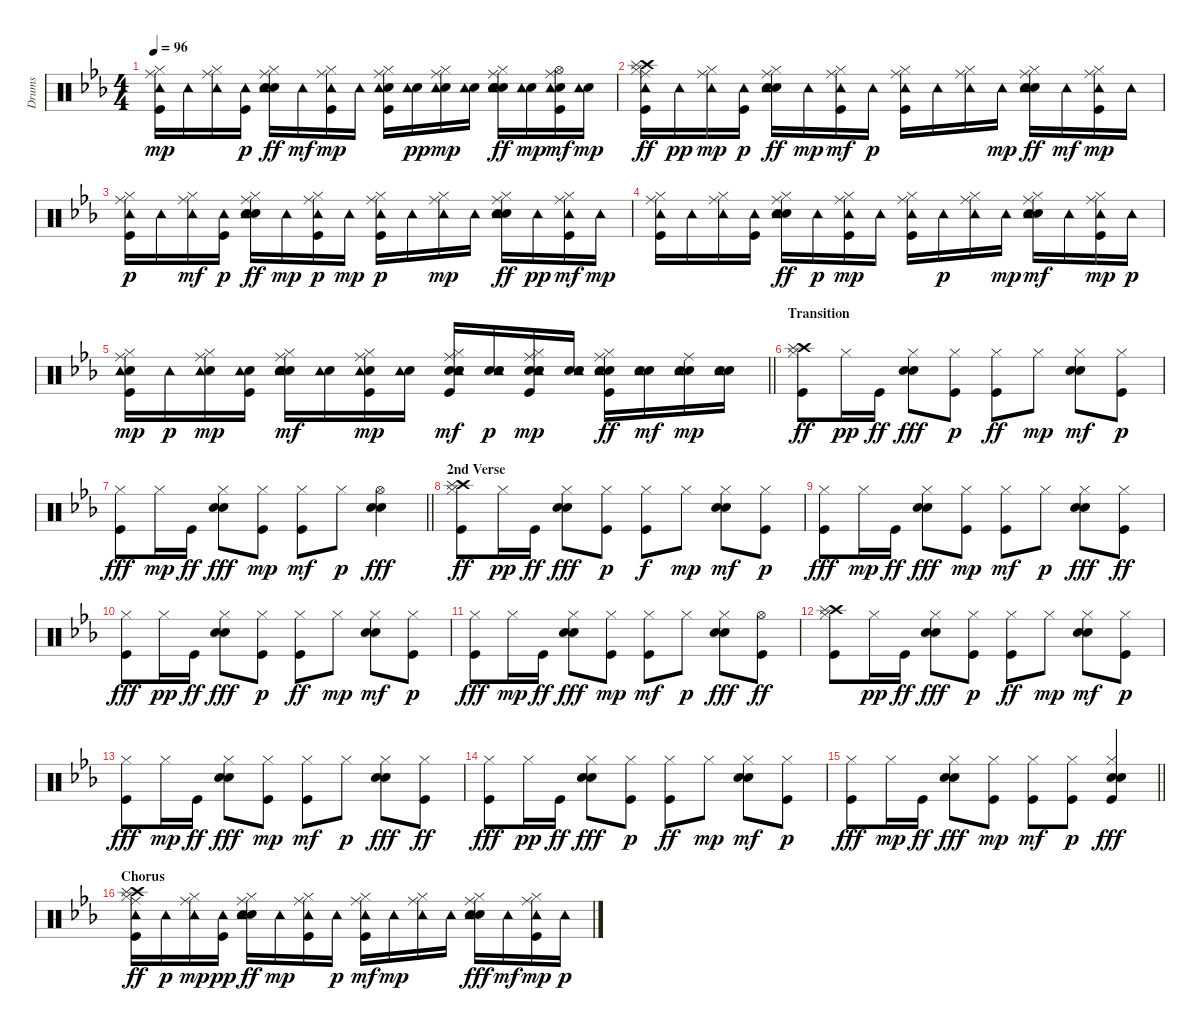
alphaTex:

\track ("Drums" "Drums") {instrument percussion}
\staff {score}
\articulation defaults
\ts (4 4)
\tempo 96
\clef neutral
\ks eb
("Kick (hit)" "Hi-Hat (closed)" "Ride (middle)" "Tambourine (hit)").16{dy mp} "Tambourine (hit)".16 ("Hi-Hat (closed)" "Ride (middle)" "Tambourine (hit)").16 ("Kick (hit)" "Tambourine (hit)").16{dy p} ("Snare (hit) 2" "Hand Clap (hit)" "Hi-Hat (closed)" "Ride (middle)" "Tambourine (hit)").16{dy ff} "Tambourine (hit)".16{dy mf} ("Kick (hit)" "Hi-Hat (closed)" "Ride (middle)" "Tambourine (hit)").16{dy mp} "Tambourine (hit)".16 ("Kick (hit)" "Electric Snare (hit)" "Hi-Hat (closed)" "Ride (middle)" "Tambourine (hit)").16 ("Electric Snare (hit)" "Tambourine (hit)").16{dy pp} ("Electric Snare (hit)" "Hi-Hat (closed)" "Ride (middle)" "Tambourine (hit)").16{dy mp} ("Electric Snare (hit)" "Tambourine (hit)").16 ("Snare (hit) 2" "Hand Clap (hit)" "Electric Snare (hit)" "Hi-Hat (closed)" "Ride (middle)" "Tambourine (hit)").16{dy ff} ("Electric Snare (hit)" "Tambourine (hit)").16{dy mp} ("Kick (hit)" "Electric Snare (hit)" "Hi-Hat (open)" "Ride (middle)" "Tambourine (hit)").16{dy mf} ("Electric Snare (hit)" "Tambourine (hit)").16{dy mp} |
("Kick (hit)" "Hi-Hat (closed)" "Crash high (hit)" "Ride (middle)" "Tambourine (hit)" "Splash (hit)").16{dy ff} "Tambourine (hit)".16{dy pp} ("Hi-Hat (closed)" "Ride (middle)" "Tambourine (hit)").16{dy mp} ("Kick (hit)" "Tambourine (hit)").16{dy p} ("Snare (hit) 2" "Hand Clap (hit)" "Hi-Hat (closed)" "Ride (middle)" "Tambourine (hit)").16{dy ff} "Tambourine (hit)".16{dy mp} ("Kick (hit)" "Hi-Hat (closed)" "Ride (middle)" "Tambourine (hit)").16{dy mf} "Tambourine (hit)".16{dy p} ("Kick (hit)" "Hi-Hat (closed)" "Ride (middle)" "Tambourine (hit)").16 "Tambourine (hit)".16 ("Hi-Hat (closed)" "Ride (middle)" "Tambourine (hit)").16 "Tambourine (hit)".16{dy mp} ("Snare (hit) 2" "Hand Clap (hit)" "Hi-Hat (closed)" "Ride (middle)" "Tambourine (hit)").16{dy ff} "Tambourine (hit)".16{dy mf} ("Kick (hit)" "Hi-Hat (closed)" "Ride (middle)" "Tambourine (hit)").16{dy mp} "Tambourine (hit)".16 |
("Kick (hit)" "Hi-Hat (closed)" "Ride (middle)" "Tambourine (hit)").16{dy p} "Tambourine (hit)".16 ("Hi-Hat (closed)" "Ride (middle)" "Tambourine (hit)").16{dy mf} ("Kick (hit)" "Tambourine (hit)").16{dy p} ("Snare (hit) 2" "Hand Clap (hit)" "Hi-Hat (closed)" "Ride (middle)" "Tambourine (hit)").16{dy ff} "Tambourine (hit)".16{dy mp} ("Kick (hit)" "Hi-Hat (closed)" "Ride (middle)" "Tambourine (hit)").16{dy p} "Tambourine (hit)".16{dy mp} ("Kick (hit)" "Hi-Hat (closed)" "Ride (middle)" "Tambourine (hit)").16{dy p} "Tambourine (hit)".16 ("Hi-Hat (closed)" "Ride (middle)" "Tambourine (hit)").16{dy mp} "Tambourine (hit)".16 ("Snare (hit) 2" "Hand Clap (hit)" "Hi-Hat (closed)" "Ride (middle)" "Tambourine (hit)").16{dy ff} "Tambourine (hit)".16{dy pp} ("Kick (hit)" "Hi-Hat (closed)" "Ride (middle)" "Tambourine (hit)").16{dy mf} "Tambourine (hit)".16{dy mp} |
("Kick (hit)" "Hi-Hat (closed)" "Ride (middle)" "Tambourine (hit)").16 "Tambourine (hit)".16 ("Hi-Hat (closed)" "Ride (middle)" "Tambourine (hit)").16 ("Kick (hit)" "Tambourine (hit)").16 ("Snare (hit) 2" "Hand Clap (hit)" "Hi-Hat (closed)" "Ride (middle)" "Tambourine (hit)").16{dy ff} "Tambourine (hit)".16{dy p} ("Kick (hit)" "Hi-Hat (closed)" "Ride (middle)" "Tambourine (hit)").16{dy mp} "Tambourine (hit)".16 ("Kick (hit)" "Hi-Hat (closed)" "Ride (middle)" "Tambourine (hit)").16 "Tambourine (hit)".16{dy p} ("Hi-Hat (closed)" "Ride (middle)" "Tambourine (hit)").16 "Tambourine (hit)".16{dy mp} ("Snare (hit) 2" "Hand Clap (hit)" "Hi-Hat (closed)" "Ride (middle)" "Tambourine (hit)").16{dy mf} "Tambourine (hit)".16 ("Kick (hit)" "Hi-Hat (closed)" "Ride (middle)" "Tambourine (hit)").16{dy mp} "Tambourine (hit)".16{dy p} |
\barLineRight lightlight
("Kick (hit)" "Electric Snare (hit)" "Hi-Hat (closed)" "Ride (middle)" "Tambourine (hit)").16{dy mp} "Tambourine (hit)".16{dy p} ("Electric Snare (hit)" "Hi-Hat (closed)" "Ride (middle)" "Tambourine (hit)").16{dy mp} ("Kick (hit)" "Electric Snare (hit)" "Tambourine (hit)").16 ("Snare (hit) 2" "Hand Clap (hit)" "Electric Snare (hit)" "Hi-Hat (closed)" "Ride (middle)" "Tambourine (hit)").16{dy mf} ("Electric Snare (hit)" "Tambourine (hit)").16 ("Kick (hit)" "Electric Snare (hit)" "Hi-Hat (closed)" "Ride (middle)" "Tambourine (hit)").16{dy mp} ("Electric Snare (hit)" "Tambourine (hit)").16 ("Kick (hit)" "Snare (hit) 2" "Electric Snare (hit)" "Hi-Hat (closed)" "Ride (middle)" "Tambourine (hit)").16{dy mf} ("Snare (hit) 2" "Electric Snare (hit)" "Tambourine (hit)").16{dy p} ("Kick (hit)" "Snare (hit) 2" "Electric Snare (hit)" "Hi-Hat (closed)" "Ride (middle)" "Tambourine (hit)").16{dy mp} ("Snare (hit) 2" "Electric Snare (hit)" "Tambourine (hit)").16 ("Kick (hit)" "Snare (hit) 2" "Electric Snare (hit)" "Hi-Hat (closed)" "Ride (middle)" "Tambourine (hit)").16{dy ff} ("Snare (hit) 2" "Electric Snare (hit)" "Tambourine (hit)").16{dy mf} ("Snare (hit) 2" "Electric Snare (hit)" "Ride (middle)" "Tambourine (hit)").16{dy mp} ("Snare (hit) 2" "Electric Snare (hit)" "Tambourine (hit)").16 |
\section ("" "Transition")
("Kick (hit)" "Hi-Hat (closed)" "Crash high (hit)" "Splash (hit)").8{dy ff} "Hi-Hat (closed)".16{dy pp} "Kick (hit)".16{dy ff} ("Snare (hit) 2" "Hand Clap (hit)" "Hi-Hat (closed)").8{dy fff} ("Kick (hit)" "Hi-Hat (closed)").8{dy p} ("Kick (hit)" "Hi-Hat (closed)").8{dy ff} "Hi-Hat (closed)".8{dy mp} ("Snare (hit) 2" "Hand Clap (hit)" "Hi-Hat (closed)").8{dy mf} ("Kick (hit)" "Hi-Hat (closed)").8{dy p} |
\barLineRight lightlight
("Kick (hit)" "Hi-Hat (closed)").8{dy fff} "Hi-Hat (closed)".16{dy mp} "Kick (hit)".16{dy ff} ("Snare (hit) 2" "Hand Clap (hit)" "Hi-Hat (closed)").8{dy fff} ("Kick (hit)" "Hi-Hat (closed)").8{dy mp} ("Kick (hit)" "Hi-Hat (closed)").8{dy mf} "Hi-Hat (closed)".8{dy p} ("Snare (hit) 2" "Hand Clap (hit)" "Hi-Hat (open)").4{dy fff} |
\section ("" "2nd Verse")
("Kick (hit)" "Hi-Hat (closed)" "Crash high (hit)" "Splash (hit)").8{dy ff} "Hi-Hat (closed)".16{dy pp} "Kick (hit)".16{dy ff} ("Snare (hit) 2" "Hand Clap (hit)" "Hi-Hat (closed)").8{dy fff} ("Kick (hit)" "Hi-Hat (closed)").8{dy p} ("Kick (hit)" "Hi-Hat (closed)").8{dy f} "Hi-Hat (closed)".8{dy mp} ("Snare (hit) 2" "Hand Clap (hit)" "Hi-Hat (closed)").8{dy mf} ("Kick (hit)" "Hi-Hat (closed)").8{dy p} |
("Kick (hit)" "Hi-Hat (closed)").8{dy fff} "Hi-Hat (closed)".16{dy mp} "Kick (hit)".16{dy ff} ("Snare (hit) 2" "Hand Clap (hit)" "Hi-Hat (closed)").8{dy fff} ("Kick (hit)" "Hi-Hat (closed)").8{dy mp} ("Kick (hit)" "Hi-Hat (closed)").8{dy mf} "Hi-Hat (closed)".8{dy p} ("Snare (hit) 2" "Hand Clap (hit)" "Hi-Hat (closed)").8{dy fff} ("Kick (hit)" "Hi-Hat (closed)").8{dy ff} |
("Kick (hit)" "Hi-Hat (closed)").8{dy fff} "Hi-Hat (closed)".16{dy pp} "Kick (hit)".16{dy ff} ("Snare (hit) 2" "Hand Clap (hit)" "Hi-Hat (closed)").8{dy fff} ("Kick (hit)" "Hi-Hat (closed)").8{dy p} ("Kick (hit)" "Hi-Hat (closed)").8{dy ff} "Hi-Hat (closed)".8{dy mp} ("Snare (hit) 2" "Hand Clap (hit)" "Hi-Hat (closed)").8{dy mf} ("Kick (hit)" "Hi-Hat (closed)").8{dy p} |
("Kick (hit)" "Hi-Hat (closed)").8{dy fff} "Hi-Hat (closed)".16{dy mp} "Kick (hit)".16{dy ff} ("Snare (hit) 2" "Hand Clap (hit)" "Hi-Hat (closed)").8{dy fff} ("Kick (hit)" "Hi-Hat (closed)").8{dy mp} ("Kick (hit)" "Hi-Hat (closed)").8{dy mf} "Hi-Hat (closed)".8{dy p} ("Snare (hit) 2" "Hand Clap (hit)" "Hi-Hat (closed)").8{dy fff} ("Kick (hit)" "Hi-Hat (open)").8{dy ff} |
("Kick (hit)" "Hi-Hat (closed)" "Crash high (hit)" "Splash (hit)").8 "Hi-Hat (closed)".16{dy pp} "Kick (hit)".16{dy ff} ("Snare (hit) 2" "Hand Clap (hit)" "Hi-Hat (closed)").8{dy fff} ("Kick (hit)" "Hi-Hat (closed)").8{dy p} ("Kick (hit)" "Hi-Hat (closed)").8{dy ff} "Hi-Hat (closed)".8{dy mp} ("Snare (hit) 2" "Hand Clap (hit)" "Hi-Hat (closed)").8{dy mf} ("Kick (hit)" "Hi-Hat (closed)").8{dy p} |
("Kick (hit)" "Hi-Hat (closed)").8{dy fff} "Hi-Hat (closed)".16{dy mp} "Kick (hit)".16{dy ff} ("Snare (hit) 2" "Hand Clap (hit)" "Hi-Hat (closed)").8{dy fff} ("Kick (hit)" "Hi-Hat (closed)").8{dy mp} ("Kick (hit)" "Hi-Hat (closed)").8{dy mf} "Hi-Hat (closed)".8{dy p} ("Snare (hit) 2" "Hand Clap (hit)" "Hi-Hat (closed)").8{dy fff} ("Kick (hit)" "Hi-Hat (closed)").8{dy ff} |
("Kick (hit)" "Hi-Hat (closed)").8{dy fff} "Hi-Hat (closed)".16{dy pp} "Kick (hit)".16{dy ff} ("Snare (hit) 2" "Hand Clap (hit)" "Hi-Hat (closed)").8{dy fff} ("Kick (hit)" "Hi-Hat (closed)").8{dy p} ("Kick (hit)" "Hi-Hat (closed)").8{dy ff} "Hi-Hat (closed)".8{dy mp} ("Snare (hit) 2" "Hand Clap (hit)" "Hi-Hat (closed)").8{dy mf} ("Kick (hit)" "Hi-Hat (closed)").8{dy p} |
\barLineRight lightlight
("Kick (hit)" "Hi-Hat (closed)").8{dy fff} "Hi-Hat (closed)".16{dy mp} "Kick (hit)".16{dy ff} ("Snare (hit) 2" "Hand Clap (hit)" "Hi-Hat (closed)").8{dy fff} ("Kick (hit)" "Hi-Hat (closed)").8{dy mp} ("Kick (hit)" "Hi-Hat (closed)").8{dy mf} ("Kick (hit)" "Hi-Hat (closed)").8{dy p} ("Kick (hit)" "Snare (hit) 2" "Hand Clap (hit)" "Hi-Hat (closed)").4{dy fff} |
\section ("" "Chorus")
("Kick (hit)" "Hi-Hat (closed)" "Crash high (hit)" "Ride (middle)" "Tambourine (hit)" "Splash (hit)").16{dy ff} "Tambourine (hit)".16{dy p} ("Hi-Hat (closed)" "Ride (middle)" "Tambourine (hit)").16{dy mp} ("Kick (hit)" "Tambourine (hit)").16{dy pp} ("Snare (hit) 2" "Hand Clap (hit)" "Hi-Hat (closed)" "Ride (middle)" "Tambourine (hit)").16{dy ff} "Tambourine (hit)".16{dy mp} ("Kick (hit)" "Hi-Hat (closed)" "Ride (middle)" "Tambourine (hit)").16 "Tambourine (hit)".16{dy p} ("Kick (hit)" "Hi-Hat (closed)" "Ride (middle)" "Tambourine (hit)").16{dy mf} "Tambourine (hit)".16{dy mp} ("Hi-Hat (closed)" "Ride (middle)" "Tambourine (hit)").16 "Tambourine (hit)".16 ("Snare (hit) 2" "Hand Clap (hit)" "Hi-Hat (closed)" "Ride (middle)" "Tambourine (hit)").16{dy fff} "Tambourine (hit)".16{dy mf} ("Kick (hit)" "Hi-Hat (closed)" "Ride (middle)" "Tambourine (hit)").16{dy mp} "Tambourine (hit)".16{dy p}
